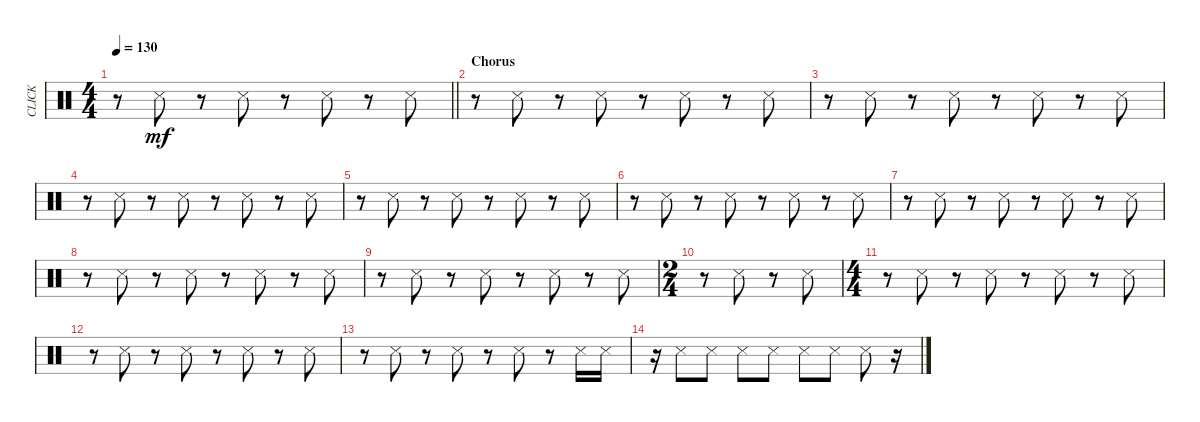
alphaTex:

\track ("CLICK" "CLICK") {instrument percussion}
\staff {score}
\articulation defaults
\ts (4 4)
\tempo 130
\clef neutral
\barLineRight lightlight
\ks c
r.8{dy mf} "Snare (side stick) 3".8 r.8 "Snare (side stick) 3".8 r.8 "Snare (side stick) 3".8 r.8 "Snare (side stick) 3".8 |
\section ("" "Chorus")
r.8 "Snare (side stick) 3".8 r.8 "Snare (side stick) 3".8 r.8 "Snare (side stick) 3".8 r.8 "Snare (side stick) 3".8 |
r.8 "Snare (side stick) 3".8 r.8 "Snare (side stick) 3".8 r.8 "Snare (side stick) 3".8 r.8 "Snare (side stick) 3".8 |
r.8 "Snare (side stick) 3".8 r.8 "Snare (side stick) 3".8 r.8 "Snare (side stick) 3".8 r.8 "Snare (side stick) 3".8 |
r.8 "Snare (side stick) 3".8 r.8 "Snare (side stick) 3".8 r.8 "Snare (side stick) 3".8 r.8 "Snare (side stick) 3".8 |
r.8 "Snare (side stick) 3".8 r.8 "Snare (side stick) 3".8 r.8 "Snare (side stick) 3".8 r.8 "Snare (side stick) 3".8 |
r.8 "Snare (side stick) 3".8 r.8 "Snare (side stick) 3".8 r.8 "Snare (side stick) 3".8 r.8 "Snare (side stick) 3".8 |
r.8 "Snare (side stick) 3".8 r.8 "Snare (side stick) 3".8 r.8 "Snare (side stick) 3".8 r.8 "Snare (side stick) 3".8 |
r.8 "Snare (side stick) 3".8 r.8 "Snare (side stick) 3".8 r.8 "Snare (side stick) 3".8 r.8 "Snare (side stick) 3".8 |
\ts (2 4)
r.8 "Snare (side stick) 3".8 r.8 "Snare (side stick) 3".8 |
\ts (4 4)
r.8 "Snare (side stick) 3".8 r.8 "Snare (side stick) 3".8 r.8 "Snare (side stick) 3".8 r.8 "Snare (side stick) 3".8 |
r.8 "Snare (side stick) 3".8 r.8 "Snare (side stick) 3".8 r.8 "Snare (side stick) 3".8 r.8 "Snare (side stick) 3".8 |
r.8 "Snare (side stick) 3".8 r.8 "Snare (side stick) 3".8 r.8 "Snare (side stick) 3".8 r.8 "Snare (side stick) 3".16 "Snare (side stick) 3".16 |
r.16 "Snare (side stick) 3".8 "Snare (side stick) 3".8 "Snare (side stick) 3".8 "Snare (side stick) 3".8 "Snare (side stick) 3".8 "Snare (side stick) 3".8 "Snare (side stick) 3".8 r.16
